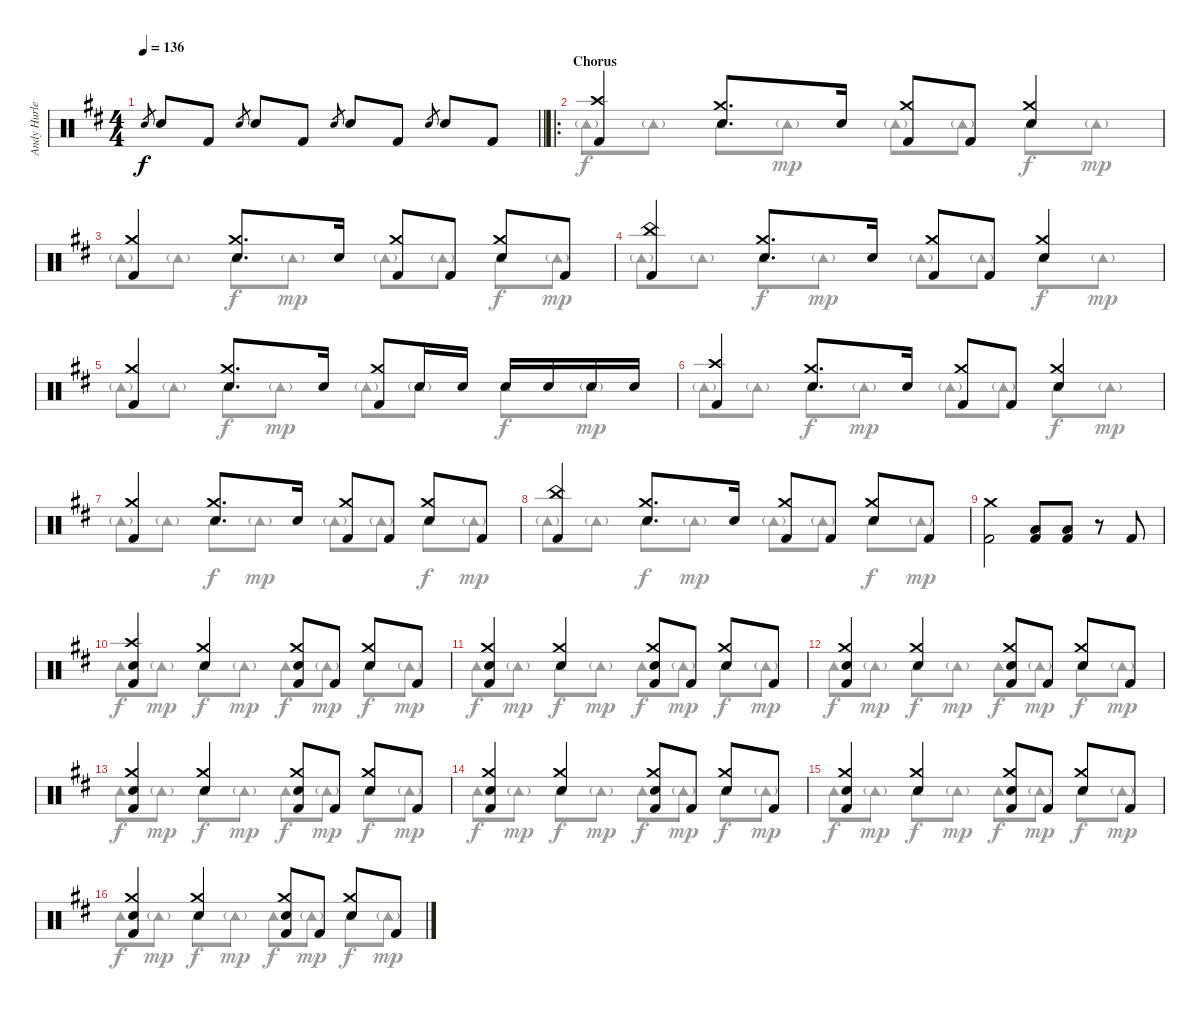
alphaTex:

\track ("Andy Hurley" "Andy Hurle") {instrument percussion}
\staff {score}
\articulation defaults
\voice
\ts (4 4)
\tempo 136
\clef neutral
\barLineRight lightlight
\ks d "Snare (hit) 2".8{gr dy f} "Snare (hit) 2".8 "Kick (hit) 2".8 "Snare (hit) 2".8{gr} "Snare (hit) 2".8 "Kick (hit) 2".8 "Snare (hit) 2".8{gr} "Snare (hit) 2".8 "Kick (hit) 2".8 "Snare (hit) 2".8{gr} "Snare (hit) 2".8 "Kick (hit) 2".8
|
\ro
\section ("" "Chorus")
("Crash high (hit)" "Kick (hit) 2").4 ("Crash medium (hit)" "Snare (hit) 2").8{d} "Snare (hit) 2".16 ("Crash medium (hit)" "Kick (hit) 2").8 "Kick (hit) 2".8 ("Crash medium (hit)" "Snare (hit) 2").4 |
("Crash medium (hit)" "Kick (hit) 2").4 ("Crash medium (hit)" "Snare (hit) 2").8{d} "Snare (hit) 2".16 ("Crash medium (hit)" "Kick (hit) 2").8 "Kick (hit) 2".8 ("Crash medium (hit)" "Snare (hit) 2").8 "Kick (hit) 2".8 |
("China (hit)" "Kick (hit) 2").4 ("Crash medium (hit)" "Snare (hit) 2").8{d} "Snare (hit) 2".16 ("Crash medium (hit)" "Kick (hit) 2").8 "Kick (hit) 2".8 ("Crash medium (hit)" "Snare (hit) 2").4 |
("Crash medium (hit)" "Kick (hit) 2").4 ("Crash medium (hit)" "Snare (hit) 2").8{d} "Snare (hit) 2".16 ("Crash medium (hit)" "Kick (hit) 2").8 "Snare (hit) 2".16 "Snare (hit) 2".16 "Snare (hit) 2".16 "Snare (hit) 2".16 "Snare (hit) 2".16 "Snare (hit) 2".16 |
("Crash high (hit)" "Kick (hit) 2").4 ("Crash medium (hit)" "Snare (hit) 2").8{d} "Snare (hit) 2".16 ("Crash medium (hit)" "Kick (hit) 2").8 "Kick (hit) 2".8 ("Crash medium (hit)" "Snare (hit) 2").4 |
("Crash medium (hit)" "Kick (hit) 2").4 ("Crash medium (hit)" "Snare (hit) 2").8{d} "Snare (hit) 2".16 ("Crash medium (hit)" "Kick (hit) 2").8 "Kick (hit) 2".8 ("Crash medium (hit)" "Snare (hit) 2").8 "Kick (hit) 2".8 |
("China (hit)" "Kick (hit) 2").4 ("Crash medium (hit)" "Snare (hit) 2").8{d} "Snare (hit) 2".16 ("Crash medium (hit)" "Kick (hit) 2").8 "Kick (hit) 2".8 ("Crash medium (hit)" "Snare (hit) 2").8 "Kick (hit) 2".8 |
("Crash medium (hit)" "Kick (hit) 2").2 ("Low Floor Tom (hit)" "Kick (hit) 2").8 ("Low Floor Tom (hit)" "Kick (hit) 2").8 r.8 "Kick (hit) 2".8 |
("Crash high (hit)" "Snare (hit) 2" "Kick (hit) 2").4 ("Crash medium (hit)" "Snare (hit) 2").4 ("Crash medium (hit)" "Snare (hit) 2" "Kick (hit) 2").8 "Kick (hit) 2".8 ("Crash medium (hit)" "Snare (hit) 2").8 "Kick (hit) 2".8 |
("Crash medium (hit)" "Snare (hit) 2" "Kick (hit) 2").4 ("Crash medium (hit)" "Snare (hit) 2").4 ("Crash medium (hit)" "Snare (hit) 2" "Kick (hit) 2").8 "Kick (hit) 2".8 ("Crash medium (hit)" "Snare (hit) 2").8 "Kick (hit) 2".8 |
("Crash medium (hit)" "Snare (hit) 2" "Kick (hit) 2").4 ("Crash medium (hit)" "Snare (hit) 2").4 ("Crash medium (hit)" "Snare (hit) 2" "Kick (hit) 2").8 "Kick (hit) 2".8 ("Crash medium (hit)" "Snare (hit) 2").8 "Kick (hit) 2".8 |
("Crash medium (hit)" "Snare (hit) 2" "Kick (hit) 2").4 ("Crash medium (hit)" "Snare (hit) 2").4 ("Crash medium (hit)" "Snare (hit) 2" "Kick (hit) 2").8 "Kick (hit) 2".8 ("Crash medium (hit)" "Snare (hit) 2").8 "Kick (hit) 2".8 |
("Crash medium (hit)" "Snare (hit) 2" "Kick (hit) 2").4 ("Crash medium (hit)" "Snare (hit) 2").4 ("Crash medium (hit)" "Snare (hit) 2" "Kick (hit) 2").8 "Kick (hit) 2".8 ("Crash medium (hit)" "Snare (hit) 2").8 "Kick (hit) 2".8 |
("Crash medium (hit)" "Snare (hit) 2" "Kick (hit) 2").4 ("Crash medium (hit)" "Snare (hit) 2").4 ("Crash medium (hit)" "Snare (hit) 2" "Kick (hit) 2").8 "Kick (hit) 2".8 ("Crash medium (hit)" "Snare (hit) 2").8 "Kick (hit) 2".8 |
("Crash medium (hit)" "Snare (hit) 2" "Kick (hit) 2").4 ("Crash medium (hit)" "Snare (hit) 2").4 ("Crash medium (hit)" "Snare (hit) 2" "Kick (hit) 2").8 "Kick (hit) 2".8 ("Crash medium (hit)" "Snare (hit) 2").8 "Kick (hit) 2".8
\voice
\clef neutral
\ottava regular
\simile none
\barLineRight lightlight
\ks d
|
"Tambourine (hit)"{g}.8 "Tambourine (hit)"{g}.8 "Tambourine (hit)".8{dy f} "Tambourine (hit)"{g}.8{dy mp} "Tambourine (hit)"{g}.8 "Tambourine (hit)"{g}.8 "Tambourine (hit)".8{dy f} "Tambourine (hit)"{g}.8{dy mp} |
"Tambourine (hit)"{g}.8 "Tambourine (hit)"{g}.8 "Tambourine (hit)".8{dy f} "Tambourine (hit)"{g}.8{dy mp} "Tambourine (hit)"{g}.8 "Tambourine (hit)"{g}.8 "Tambourine (hit)".8{dy f} "Tambourine (hit)"{g}.8{dy mp} |
"Tambourine (hit)"{g}.8 "Tambourine (hit)"{g}.8 "Tambourine (hit)".8{dy f} "Tambourine (hit)"{g}.8{dy mp} "Tambourine (hit)"{g}.8 "Tambourine (hit)"{g}.8 "Tambourine (hit)".8{dy f} "Tambourine (hit)"{g}.8{dy mp} |
"Tambourine (hit)"{g}.8 "Tambourine (hit)"{g}.8 "Tambourine (hit)".8{dy f} "Tambourine (hit)"{g}.8{dy mp} "Tambourine (hit)"{g}.8 "Tambourine (hit)"{g}.8 "Tambourine (hit)".8{dy f} "Tambourine (hit)"{g}.8{dy mp} |
"Tambourine (hit)"{g}.8 "Tambourine (hit)"{g}.8 "Tambourine (hit)".8{dy f} "Tambourine (hit)"{g}.8{dy mp} "Tambourine (hit)"{g}.8 "Tambourine (hit)"{g}.8 "Tambourine (hit)".8{dy f} "Tambourine (hit)"{g}.8{dy mp} |
"Tambourine (hit)"{g}.8 "Tambourine (hit)"{g}.8 "Tambourine (hit)".8{dy f} "Tambourine (hit)"{g}.8{dy mp} "Tambourine (hit)"{g}.8 "Tambourine (hit)"{g}.8 "Tambourine (hit)".8{dy f} "Tambourine (hit)"{g}.8{dy mp} |
"Tambourine (hit)"{g}.8 "Tambourine (hit)"{g}.8 "Tambourine (hit)".8{dy f} "Tambourine (hit)"{g}.8{dy mp} "Tambourine (hit)"{g}.8 "Tambourine (hit)"{g}.8 "Tambourine (hit)".8{dy f} "Tambourine (hit)"{g}.8{dy mp} |
|
"Tambourine (hit)".8{dy f} "Tambourine (hit)"{g}.8{dy mp} "Tambourine (hit)".8{dy f} "Tambourine (hit)"{g}.8{dy mp} "Tambourine (hit)".8{dy f} "Tambourine (hit)"{g}.8{dy mp} "Tambourine (hit)".8{dy f} "Tambourine (hit)"{g}.8{dy mp} |
"Tambourine (hit)".8{dy f} "Tambourine (hit)"{g}.8{dy mp} "Tambourine (hit)".8{dy f} "Tambourine (hit)"{g}.8{dy mp} "Tambourine (hit)".8{dy f} "Tambourine (hit)"{g}.8{dy mp} "Tambourine (hit)".8{dy f} "Tambourine (hit)"{g}.8{dy mp} |
"Tambourine (hit)".8{dy f} "Tambourine (hit)"{g}.8{dy mp} "Tambourine (hit)".8{dy f} "Tambourine (hit)"{g}.8{dy mp} "Tambourine (hit)".8{dy f} "Tambourine (hit)"{g}.8{dy mp} "Tambourine (hit)".8{dy f} "Tambourine (hit)"{g}.8{dy mp} |
"Tambourine (hit)".8{dy f} "Tambourine (hit)"{g}.8{dy mp} "Tambourine (hit)".8{dy f} "Tambourine (hit)"{g}.8{dy mp} "Tambourine (hit)".8{dy f} "Tambourine (hit)"{g}.8{dy mp} "Tambourine (hit)".8{dy f} "Tambourine (hit)"{g}.8{dy mp} |
"Tambourine (hit)".8{dy f} "Tambourine (hit)"{g}.8{dy mp} "Tambourine (hit)".8{dy f} "Tambourine (hit)"{g}.8{dy mp} "Tambourine (hit)".8{dy f} "Tambourine (hit)"{g}.8{dy mp} "Tambourine (hit)".8{dy f} "Tambourine (hit)"{g}.8{dy mp} |
"Tambourine (hit)".8{dy f} "Tambourine (hit)"{g}.8{dy mp} "Tambourine (hit)".8{dy f} "Tambourine (hit)"{g}.8{dy mp} "Tambourine (hit)".8{dy f} "Tambourine (hit)"{g}.8{dy mp} "Tambourine (hit)".8{dy f} "Tambourine (hit)"{g}.8{dy mp} |
"Tambourine (hit)".8{dy f} "Tambourine (hit)"{g}.8{dy mp} "Tambourine (hit)".8{dy f} "Tambourine (hit)"{g}.8{dy mp} "Tambourine (hit)".8{dy f} "Tambourine (hit)"{g}.8{dy mp} "Tambourine (hit)".8{dy f} "Tambourine (hit)"{g}.8{dy mp}
